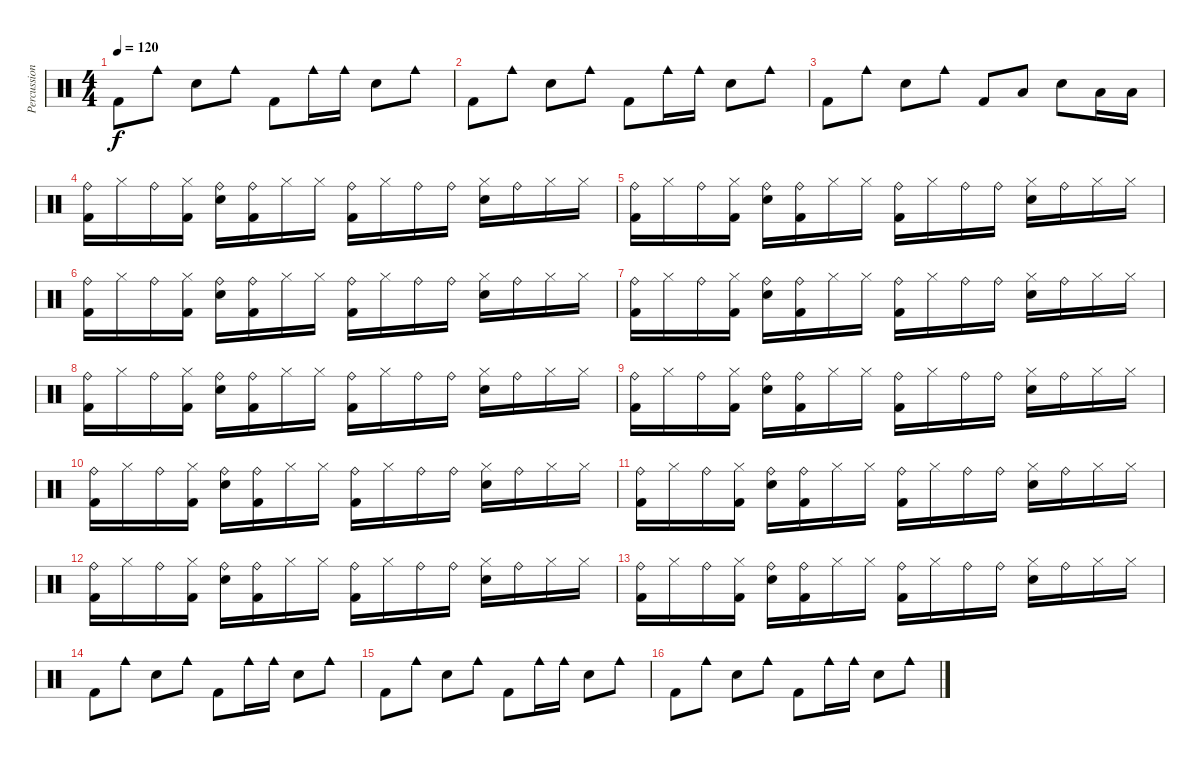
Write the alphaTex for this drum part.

\track ("Percussion" "Percussion") {instrument percussion}
\staff {score}
\articulation defaults
\ts (4 4)
\tempo 120
\clef neutral
\ks c "Kick (hit) 2".8{dy f} "Cowbell medium (hit)".8 "Electric Snare (hit)".8 "Cowbell medium (hit)".8 "Kick (hit) 2".8 "Cowbell medium (hit)".16 "Cowbell medium (hit)".16 "Electric Snare (hit)".8 "Cowbell medium (hit)".8
|
"Kick (hit) 2".8 "Cowbell medium (hit)".8 "Electric Snare (hit)".8 "Cowbell medium (hit)".8 "Kick (hit) 2".8 "Cowbell medium (hit)".16 "Cowbell medium (hit)".16 "Electric Snare (hit)".8 "Cowbell medium (hit)".8 |
"Kick (hit) 2".8 "Cowbell medium (hit)".8 "Electric Snare (hit)".8 "Cowbell medium (hit)".8 "Kick (hit) 2".8 "Low Floor Tom (hit)".8 "Electric Snare (hit)".8 "Low Floor Tom (hit)".16 "Low Floor Tom (hit)".16 |
("Kick (hit) 2" "Ride (bell)").16 "Hi-Hat (closed)".16 "Ride (bell)".16 ("Kick (hit) 2" "Hi-Hat (closed)").16 ("Snare (hit) 2" "Ride (bell)").16 ("Ride (bell)" "Kick (hit) 2").16 "Hi-Hat (closed)".16 "Hi-Hat (closed)".16 ("Kick (hit) 2" "Ride (bell)").16 "Hi-Hat (closed)".16 "Ride (bell)".16 "Ride (bell)".16 ("Hi-Hat (closed)" "Snare (hit) 2").16 "Ride (bell)".16 "Hi-Hat (closed)".16 "Hi-Hat (closed)".16 |
("Kick (hit) 2" "Ride (bell)").16 "Hi-Hat (closed)".16 "Ride (bell)".16 ("Kick (hit) 2" "Hi-Hat (closed)").16 ("Snare (hit) 2" "Ride (bell)").16 ("Ride (bell)" "Kick (hit) 2").16 "Hi-Hat (closed)".16 "Hi-Hat (closed)".16 ("Kick (hit) 2" "Ride (bell)").16 "Hi-Hat (closed)".16 "Ride (bell)".16 "Ride (bell)".16 ("Hi-Hat (closed)" "Snare (hit) 2").16 "Ride (bell)".16 "Hi-Hat (closed)".16 "Hi-Hat (closed)".16 |
("Kick (hit) 2" "Ride (bell)").16 "Hi-Hat (closed)".16 "Ride (bell)".16 ("Kick (hit) 2" "Hi-Hat (closed)").16 ("Snare (hit) 2" "Ride (bell)").16 ("Ride (bell)" "Kick (hit) 2").16 "Hi-Hat (closed)".16 "Hi-Hat (closed)".16 ("Kick (hit) 2" "Ride (bell)").16 "Hi-Hat (closed)".16 "Ride (bell)".16 "Ride (bell)".16 ("Hi-Hat (closed)" "Snare (hit) 2").16 "Ride (bell)".16 "Hi-Hat (closed)".16 "Hi-Hat (closed)".16 |
("Kick (hit) 2" "Ride (bell)").16 "Hi-Hat (closed)".16 "Ride (bell)".16 ("Kick (hit) 2" "Hi-Hat (closed)").16 ("Snare (hit) 2" "Ride (bell)").16 ("Ride (bell)" "Kick (hit) 2").16 "Hi-Hat (closed)".16 "Hi-Hat (closed)".16 ("Kick (hit) 2" "Ride (bell)").16 "Hi-Hat (closed)".16 "Ride (bell)".16 "Ride (bell)".16 ("Hi-Hat (closed)" "Snare (hit) 2").16 "Ride (bell)".16 "Hi-Hat (closed)".16 "Hi-Hat (closed)".16 |
("Kick (hit) 2" "Ride (bell)").16 "Hi-Hat (closed)".16 "Ride (bell)".16 ("Kick (hit) 2" "Hi-Hat (closed)").16 ("Snare (hit) 2" "Ride (bell)").16 ("Ride (bell)" "Kick (hit) 2").16 "Hi-Hat (closed)".16 "Hi-Hat (closed)".16 ("Kick (hit) 2" "Ride (bell)").16 "Hi-Hat (closed)".16 "Ride (bell)".16 "Ride (bell)".16 ("Hi-Hat (closed)" "Snare (hit) 2").16 "Ride (bell)".16 "Hi-Hat (closed)".16 "Hi-Hat (closed)".16 |
("Kick (hit) 2" "Ride (bell)").16 "Hi-Hat (closed)".16 "Ride (bell)".16 ("Kick (hit) 2" "Hi-Hat (closed)").16 ("Snare (hit) 2" "Ride (bell)").16 ("Ride (bell)" "Kick (hit) 2").16 "Hi-Hat (closed)".16 "Hi-Hat (closed)".16 ("Kick (hit) 2" "Ride (bell)").16 "Hi-Hat (closed)".16 "Ride (bell)".16 "Ride (bell)".16 ("Hi-Hat (closed)" "Snare (hit) 2").16 "Ride (bell)".16 "Hi-Hat (closed)".16 "Hi-Hat (closed)".16 |
("Kick (hit) 2" "Ride (bell)").16 "Hi-Hat (closed)".16 "Ride (bell)".16 ("Kick (hit) 2" "Hi-Hat (closed)").16 ("Snare (hit) 2" "Ride (bell)").16 ("Ride (bell)" "Kick (hit) 2").16 "Hi-Hat (closed)".16 "Hi-Hat (closed)".16 ("Kick (hit) 2" "Ride (bell)").16 "Hi-Hat (closed)".16 "Ride (bell)".16 "Ride (bell)".16 ("Hi-Hat (closed)" "Snare (hit) 2").16 "Ride (bell)".16 "Hi-Hat (closed)".16 "Hi-Hat (closed)".16 |
("Kick (hit) 2" "Ride (bell)").16 "Hi-Hat (closed)".16 "Ride (bell)".16 ("Kick (hit) 2" "Hi-Hat (closed)").16 ("Snare (hit) 2" "Ride (bell)").16 ("Ride (bell)" "Kick (hit) 2").16 "Hi-Hat (closed)".16 "Hi-Hat (closed)".16 ("Kick (hit) 2" "Ride (bell)").16 "Hi-Hat (closed)".16 "Ride (bell)".16 "Ride (bell)".16 ("Hi-Hat (closed)" "Snare (hit) 2").16 "Ride (bell)".16 "Hi-Hat (closed)".16 "Hi-Hat (closed)".16 |
("Kick (hit) 2" "Ride (bell)").16 "Hi-Hat (closed)".16 "Ride (bell)".16 ("Kick (hit) 2" "Hi-Hat (closed)").16 ("Snare (hit) 2" "Ride (bell)").16 ("Ride (bell)" "Kick (hit) 2").16 "Hi-Hat (closed)".16 "Hi-Hat (closed)".16 ("Kick (hit) 2" "Ride (bell)").16 "Hi-Hat (closed)".16 "Ride (bell)".16 "Ride (bell)".16 ("Hi-Hat (closed)" "Snare (hit) 2").16 "Ride (bell)".16 "Hi-Hat (closed)".16 "Hi-Hat (closed)".16 |
("Kick (hit) 2" "Ride (bell)").16 "Hi-Hat (closed)".16 "Ride (bell)".16 ("Kick (hit) 2" "Hi-Hat (closed)").16 ("Snare (hit) 2" "Ride (bell)").16 ("Ride (bell)" "Kick (hit) 2").16 "Hi-Hat (closed)".16 "Hi-Hat (closed)".16 ("Kick (hit) 2" "Ride (bell)").16 "Hi-Hat (closed)".16 "Ride (bell)".16 "Ride (bell)".16 ("Hi-Hat (closed)" "Snare (hit) 2").16 "Ride (bell)".16 "Hi-Hat (closed)".16 "Hi-Hat (closed)".16 |
"Kick (hit) 2".8 "Cowbell medium (hit)".8 "Electric Snare (hit)".8 "Cowbell medium (hit)".8 "Kick (hit) 2".8 "Cowbell medium (hit)".16 "Cowbell medium (hit)".16 "Electric Snare (hit)".8 "Cowbell medium (hit)".8 |
"Kick (hit) 2".8 "Cowbell medium (hit)".8 "Electric Snare (hit)".8 "Cowbell medium (hit)".8 "Kick (hit) 2".8 "Cowbell medium (hit)".16 "Cowbell medium (hit)".16 "Electric Snare (hit)".8 "Cowbell medium (hit)".8 |
"Kick (hit) 2".8 "Cowbell medium (hit)".8 "Electric Snare (hit)".8 "Cowbell medium (hit)".8 "Kick (hit) 2".8 "Cowbell medium (hit)".16 "Cowbell medium (hit)".16 "Electric Snare (hit)".8 "Cowbell medium (hit)".8
